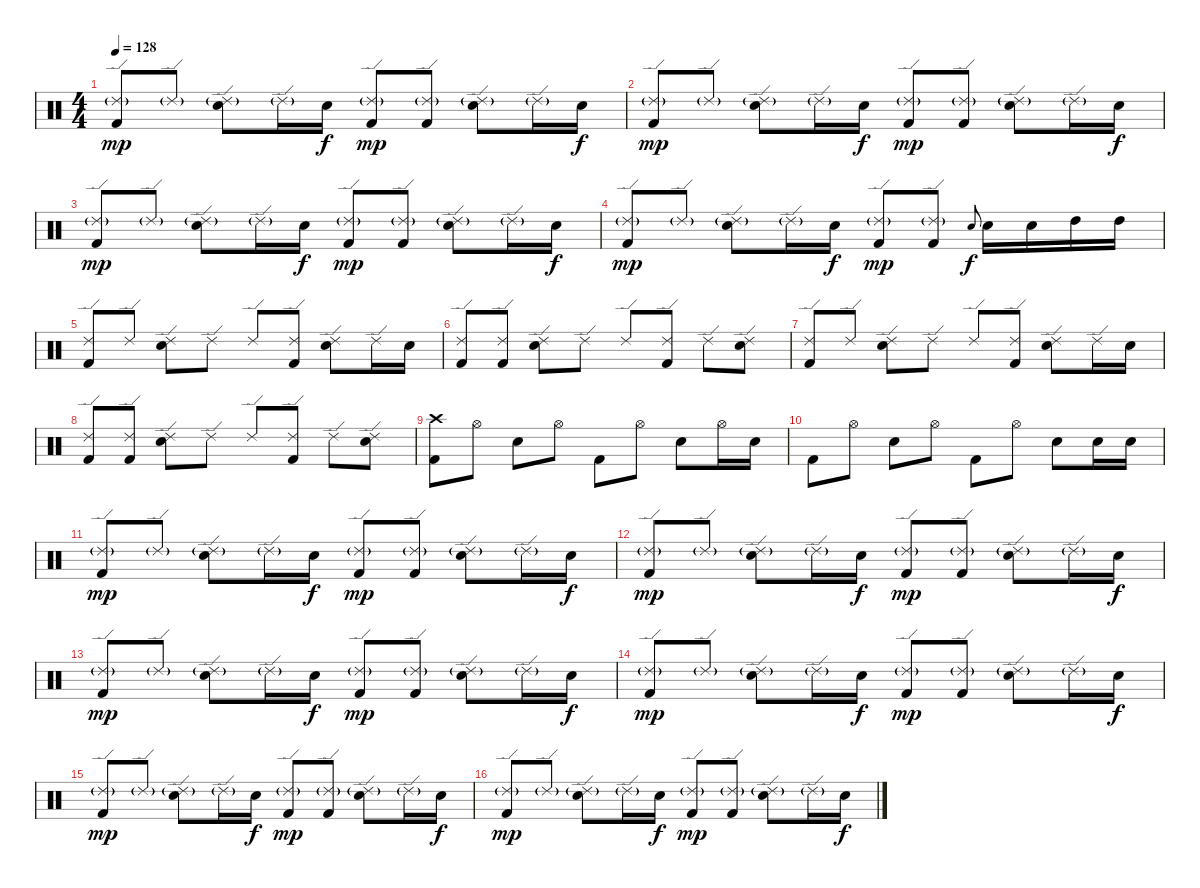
\track "" {solo instrument percussion}
\staff {score}
\articulation defaults
\ts (4 4)
\tempo 128
\clef neutral
\ks c
("Ride (edge) 2"{g} "Kick (hit) 2").8{dy mp} "Ride (edge) 2"{g}.8 ("Ride (edge) 2"{g} "Snare (hit) 2").8 "Ride (edge) 2"{g}.16 "Snare (hit) 2".16{dy f} ("Ride (edge) 2"{g} "Kick (hit) 2").8{dy mp} ("Ride (edge) 2"{g} "Kick (hit) 2").8 ("Ride (edge) 2"{g} "Snare (hit) 2").8 "Ride (edge) 2"{g}.16 "Snare (hit) 2".16{dy f} |
("Ride (edge) 2"{g} "Kick (hit) 2").8{dy mp} "Ride (edge) 2"{g}.8 ("Ride (edge) 2"{g} "Snare (hit) 2").8 "Ride (edge) 2"{g}.16 "Snare (hit) 2".16{dy f} ("Ride (edge) 2"{g} "Kick (hit) 2").8{dy mp} ("Ride (edge) 2"{g} "Kick (hit) 2").8 ("Ride (edge) 2"{g} "Snare (hit) 2").8 "Ride (edge) 2"{g}.16 "Snare (hit) 2".16{dy f} |
("Ride (edge) 2"{g} "Kick (hit) 2").8{dy mp} "Ride (edge) 2"{g}.8 ("Ride (edge) 2"{g} "Snare (hit) 2").8 "Ride (edge) 2"{g}.16 "Snare (hit) 2".16{dy f} ("Ride (edge) 2"{g} "Kick (hit) 2").8{dy mp} ("Ride (edge) 2"{g} "Kick (hit) 2").8 ("Ride (edge) 2"{g} "Snare (hit) 2").8 "Ride (edge) 2"{g}.16 "Snare (hit) 2".16{dy f} |
("Ride (edge) 2"{g} "Kick (hit) 2").8{dy mp} "Ride (edge) 2"{g}.8 ("Ride (edge) 2"{g} "Snare (hit) 2").8 "Ride (edge) 2"{g}.16 "Snare (hit) 2".16{dy f} ("Ride (edge) 2"{g} "Kick (hit) 2").8{dy mp} ("Ride (edge) 2"{g} "Kick (hit) 2").8 "Snare (hit) 2".8{gr onbeat dy f} "Snare (hit) 2".16 "Snare (hit) 2".16 "High Tom (hit)".16 "High Tom (hit)".16 |
("Ride (edge) 2" "Kick (hit) 2").8 "Ride (edge) 2".8 ("Ride (edge) 2" "Snare (hit) 2").8 "Ride (edge) 2".8 "Ride (edge) 2".8 ("Ride (edge) 2" "Kick (hit) 2").8 ("Ride (edge) 2" "Snare (hit) 2").8 "Ride (edge) 2".16 "Snare (hit) 2".16 |
("Ride (edge) 2" "Kick (hit) 2").8 ("Ride (edge) 2" "Kick (hit) 2").8 ("Ride (edge) 2" "Snare (hit) 2").8 "Ride (edge) 2".8 "Ride (edge) 2".8 ("Ride (edge) 2" "Kick (hit) 2").8 "Ride (edge) 2".8 ("Ride (edge) 2" "Snare (hit) 2").8 |
("Ride (edge) 2" "Kick (hit) 2").8 "Ride (edge) 2".8 ("Ride (edge) 2" "Snare (hit) 2").8 "Ride (edge) 2".8 "Ride (edge) 2".8 ("Ride (edge) 2" "Kick (hit) 2").8 ("Ride (edge) 2" "Snare (hit) 2").8 "Ride (edge) 2".16 "Snare (hit) 2".16 |
("Ride (edge) 2" "Kick (hit) 2").8 ("Ride (edge) 2" "Kick (hit) 2").8 ("Ride (edge) 2" "Snare (hit) 2").8 "Ride (edge) 2".8 "Ride (edge) 2".8 ("Ride (edge) 2" "Kick (hit) 2").8 "Ride (edge) 2".8 ("Ride (edge) 2" "Snare (hit) 2").8 |
("Crash high (hit)" "Kick (hit) 2").8 "Hi-Hat (open)".8 "Snare (hit) 2".8 "Hi-Hat (open)".8 "Kick (hit) 2".8 "Hi-Hat (open)".8 "Snare (hit) 2".8 "Hi-Hat (open)".16 "Snare (hit) 2".16 |
"Kick (hit) 2".8 "Hi-Hat (open)".8 "Snare (hit) 2".8 "Hi-Hat (open)".8 "Kick (hit) 2".8 "Hi-Hat (open)".8 "Snare (hit) 2".8 "Snare (hit) 2".16 "Snare (hit) 2".16 |
("Ride (edge) 2"{g} "Kick (hit) 2").8{dy mp} "Ride (edge) 2"{g}.8 ("Ride (edge) 2"{g} "Snare (hit) 2").8 "Ride (edge) 2"{g}.16 "Snare (hit) 2".16{dy f} ("Ride (edge) 2"{g} "Kick (hit) 2").8{dy mp} ("Ride (edge) 2"{g} "Kick (hit) 2").8 ("Ride (edge) 2"{g} "Snare (hit) 2").8 "Ride (edge) 2"{g}.16 "Snare (hit) 2".16{dy f} |
("Ride (edge) 2"{g} "Kick (hit) 2").8{dy mp} "Ride (edge) 2"{g}.8 ("Ride (edge) 2"{g} "Snare (hit) 2").8 "Ride (edge) 2"{g}.16 "Snare (hit) 2".16{dy f} ("Ride (edge) 2"{g} "Kick (hit) 2").8{dy mp} ("Ride (edge) 2"{g} "Kick (hit) 2").8 ("Ride (edge) 2"{g} "Snare (hit) 2").8 "Ride (edge) 2"{g}.16 "Snare (hit) 2".16{dy f} |
("Ride (edge) 2"{g} "Kick (hit) 2").8{dy mp} "Ride (edge) 2"{g}.8 ("Ride (edge) 2"{g} "Snare (hit) 2").8 "Ride (edge) 2"{g}.16 "Snare (hit) 2".16{dy f} ("Ride (edge) 2"{g} "Kick (hit) 2").8{dy mp} ("Ride (edge) 2"{g} "Kick (hit) 2").8 ("Ride (edge) 2"{g} "Snare (hit) 2").8 "Ride (edge) 2"{g}.16 "Snare (hit) 2".16{dy f} |
("Ride (edge) 2"{g} "Kick (hit) 2").8{dy mp} "Ride (edge) 2"{g}.8 ("Ride (edge) 2"{g} "Snare (hit) 2").8 "Ride (edge) 2"{g}.16 "Snare (hit) 2".16{dy f} ("Ride (edge) 2"{g} "Kick (hit) 2").8{dy mp} ("Ride (edge) 2"{g} "Kick (hit) 2").8 ("Ride (edge) 2"{g} "Snare (hit) 2").8 "Ride (edge) 2"{g}.16 "Snare (hit) 2".16{dy f} |
("Ride (edge) 2"{g} "Kick (hit) 2").8{dy mp} "Ride (edge) 2"{g}.8 ("Ride (edge) 2"{g} "Snare (hit) 2").8 "Ride (edge) 2"{g}.16 "Snare (hit) 2".16{dy f} ("Ride (edge) 2"{g} "Kick (hit) 2").8{dy mp} ("Ride (edge) 2"{g} "Kick (hit) 2").8 ("Ride (edge) 2"{g} "Snare (hit) 2").8 "Ride (edge) 2"{g}.16 "Snare (hit) 2".16{dy f} |
("Ride (edge) 2"{g} "Kick (hit) 2").8{dy mp} "Ride (edge) 2"{g}.8 ("Ride (edge) 2"{g} "Snare (hit) 2").8 "Ride (edge) 2"{g}.16 "Snare (hit) 2".16{dy f} ("Ride (edge) 2"{g} "Kick (hit) 2").8{dy mp} ("Ride (edge) 2"{g} "Kick (hit) 2").8 ("Ride (edge) 2"{g} "Snare (hit) 2").8 "Ride (edge) 2"{g}.16 "Snare (hit) 2".16{dy f}
